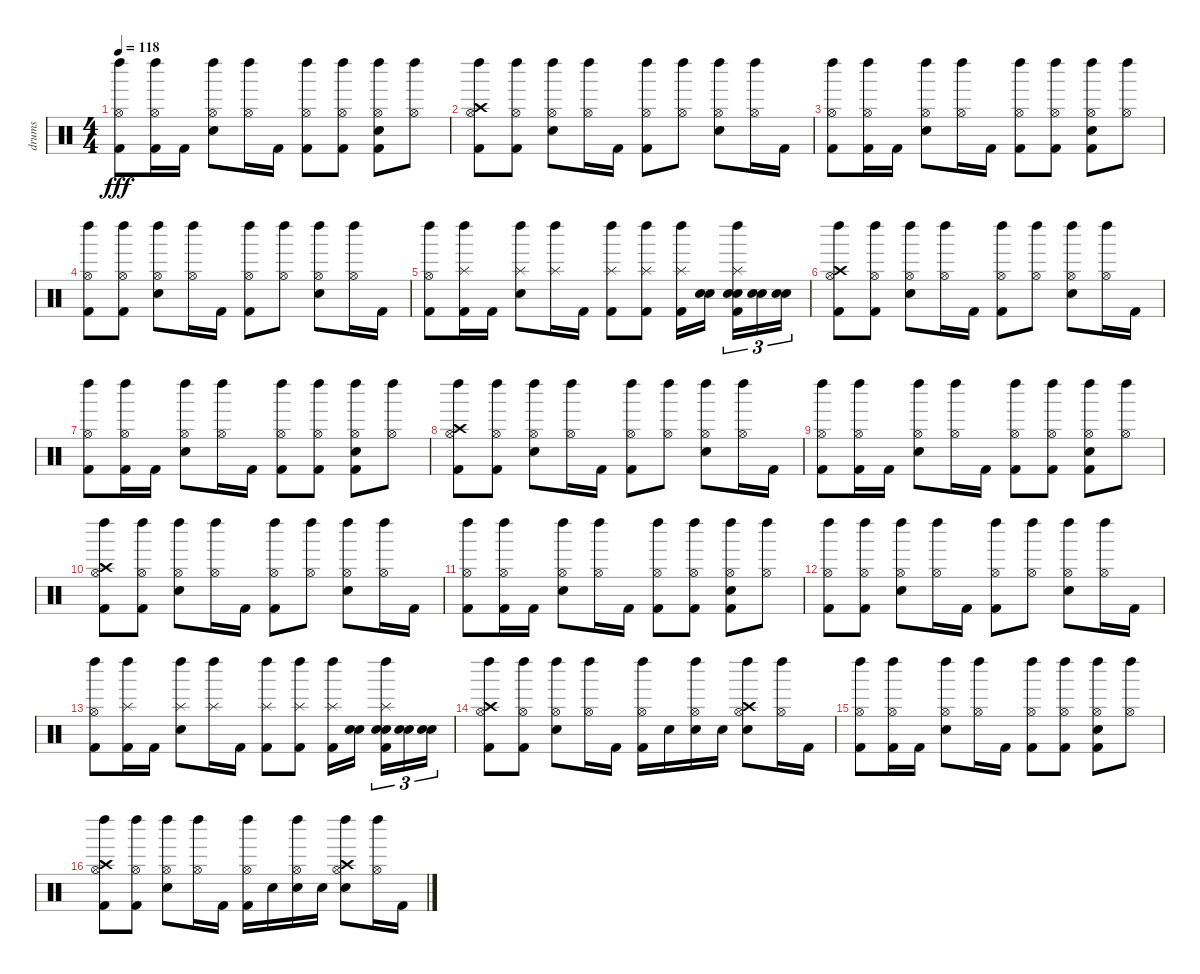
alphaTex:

\track ("drums" "drums") {instrument percussion}
\staff {score}
\articulation defaults
\ts (4 4)
\tempo 118
\clef neutral
\ks c
("Hi-Hat (open)" "Left Maraca (hit)" "Kick (hit) 2").8{dy fff} ("Hi-Hat (open)" "Left Maraca (hit)" "Kick (hit) 2").16 "Kick (hit) 2".16 ("Hi-Hat (open)" "Left Maraca (hit)" "Electric Snare (hit)").8 ("Left Maraca (hit)" "Hi-Hat (open)").16 "Kick (hit) 2".16 ("Kick (hit) 2" "Left Maraca (hit)" "Hi-Hat (open)").8 ("Hi-Hat (open)" "Kick (hit) 2" "Left Maraca (hit)").8 ("Electric Snare (hit)" "Left Maraca (hit)" "Kick (hit) 2" "Hi-Hat (open)").8 ("Left Maraca (hit)" "Hi-Hat (open)").8 |
("Hi-Hat (open)" "Crash high (hit)" "Left Maraca (hit)" "Kick (hit) 2").8 ("Kick (hit) 2" "Left Maraca (hit)" "Hi-Hat (open)").8 ("Hi-Hat (open)" "Electric Snare (hit)" "Left Maraca (hit)").8 ("Left Maraca (hit)" "Hi-Hat (open)").16 "Kick (hit) 2".16 ("Left Maraca (hit)" "Kick (hit) 2" "Hi-Hat (open)").8 ("Left Maraca (hit)" "Hi-Hat (open)").8 ("Hi-Hat (open)" "Electric Snare (hit)" "Left Maraca (hit)").8 ("Left Maraca (hit)" "Hi-Hat (open)").16 "Kick (hit) 2".16 |
("Hi-Hat (open)" "Left Maraca (hit)" "Kick (hit) 2").8 ("Hi-Hat (open)" "Left Maraca (hit)" "Kick (hit) 2").16 "Kick (hit) 2".16 ("Hi-Hat (open)" "Left Maraca (hit)" "Electric Snare (hit)").8 ("Left Maraca (hit)" "Hi-Hat (open)").16 "Kick (hit) 2".16 ("Kick (hit) 2" "Left Maraca (hit)" "Hi-Hat (open)").8 ("Hi-Hat (open)" "Kick (hit) 2" "Left Maraca (hit)").8 ("Electric Snare (hit)" "Left Maraca (hit)" "Kick (hit) 2" "Hi-Hat (open)").8 ("Left Maraca (hit)" "Hi-Hat (open)").8 |
("Hi-Hat (open)" "Kick (hit) 2" "Left Maraca (hit)").8 ("Kick (hit) 2" "Hi-Hat (open)" "Left Maraca (hit)").8 ("Hi-Hat (open)" "Electric Snare (hit)" "Left Maraca (hit)").8 ("Hi-Hat (open)" "Left Maraca (hit)").16 "Kick (hit) 2".16 ("Hi-Hat (open)" "Kick (hit) 2" "Left Maraca (hit)").8 ("Left Maraca (hit)" "Hi-Hat (open)").8 ("Hi-Hat (open)" "Electric Snare (hit)" "Left Maraca (hit)").8 ("Hi-Hat (open)" "Left Maraca (hit)").16 "Kick (hit) 2".16 |
("Hi-Hat (open)" "Kick (hit) 2" "Left Maraca (hit)").8 ("Left Maraca (hit)" "Splash (hit)" "Kick (hit) 2").16 "Kick (hit) 2".16 ("Splash (hit)" "Left Maraca (hit)" "Electric Snare (hit)").8 ("Splash (hit)" "Left Maraca (hit)").16 "Kick (hit) 2".16 ("Left Maraca (hit)" "Kick (hit) 2" "Splash (hit)").8 ("Splash (hit)" "Kick (hit) 2" "Left Maraca (hit)").8 ("Left Maraca (hit)" "Kick (hit) 2" "Splash (hit)").16 ("Electric Snare (hit)" "Electric Snare (hit)").16 ("Electric Snare (hit)" "Kick (hit) 2" "Splash (hit)" "Left Maraca (hit)" "Electric Snare (hit)").16{tu (3 2)} ("Electric Snare (hit)" "Electric Snare (hit)").16{tu (3 2)} ("Electric Snare (hit)" "Electric Snare (hit)").16{tu (3 2)} |
("Hi-Hat (open)" "Crash high (hit)" "Left Maraca (hit)" "Kick (hit) 2").8 ("Kick (hit) 2" "Left Maraca (hit)" "Hi-Hat (open)").8 ("Hi-Hat (open)" "Electric Snare (hit)" "Left Maraca (hit)").8 ("Left Maraca (hit)" "Hi-Hat (open)").16 "Kick (hit) 2".16 ("Left Maraca (hit)" "Kick (hit) 2" "Hi-Hat (open)").8 ("Left Maraca (hit)" "Hi-Hat (open)").8 ("Hi-Hat (open)" "Electric Snare (hit)" "Left Maraca (hit)").8 ("Left Maraca (hit)" "Hi-Hat (open)").16 "Kick (hit) 2".16 |
("Hi-Hat (open)" "Left Maraca (hit)" "Kick (hit) 2").8 ("Hi-Hat (open)" "Left Maraca (hit)" "Kick (hit) 2").16 "Kick (hit) 2".16 ("Hi-Hat (open)" "Left Maraca (hit)" "Electric Snare (hit)").8 ("Left Maraca (hit)" "Hi-Hat (open)").16 "Kick (hit) 2".16 ("Kick (hit) 2" "Left Maraca (hit)" "Hi-Hat (open)").8 ("Hi-Hat (open)" "Kick (hit) 2" "Left Maraca (hit)").8 ("Electric Snare (hit)" "Left Maraca (hit)" "Kick (hit) 2" "Hi-Hat (open)").8 ("Left Maraca (hit)" "Hi-Hat (open)").8 |
("Hi-Hat (open)" "Crash high (hit)" "Left Maraca (hit)" "Kick (hit) 2").8 ("Kick (hit) 2" "Left Maraca (hit)" "Hi-Hat (open)").8 ("Hi-Hat (open)" "Electric Snare (hit)" "Left Maraca (hit)").8 ("Left Maraca (hit)" "Hi-Hat (open)").16 "Kick (hit) 2".16 ("Left Maraca (hit)" "Kick (hit) 2" "Hi-Hat (open)").8 ("Left Maraca (hit)" "Hi-Hat (open)").8 ("Hi-Hat (open)" "Electric Snare (hit)" "Left Maraca (hit)").8 ("Left Maraca (hit)" "Hi-Hat (open)").16 "Kick (hit) 2".16 |
("Hi-Hat (open)" "Left Maraca (hit)" "Kick (hit) 2").8 ("Hi-Hat (open)" "Left Maraca (hit)" "Kick (hit) 2").16 "Kick (hit) 2".16 ("Hi-Hat (open)" "Left Maraca (hit)" "Electric Snare (hit)").8 ("Left Maraca (hit)" "Hi-Hat (open)").16 "Kick (hit) 2".16 ("Kick (hit) 2" "Left Maraca (hit)" "Hi-Hat (open)").8 ("Hi-Hat (open)" "Kick (hit) 2" "Left Maraca (hit)").8 ("Electric Snare (hit)" "Left Maraca (hit)" "Kick (hit) 2" "Hi-Hat (open)").8 ("Left Maraca (hit)" "Hi-Hat (open)").8 |
("Hi-Hat (open)" "Crash high (hit)" "Left Maraca (hit)" "Kick (hit) 2").8 ("Kick (hit) 2" "Left Maraca (hit)" "Hi-Hat (open)").8 ("Hi-Hat (open)" "Electric Snare (hit)" "Left Maraca (hit)").8 ("Left Maraca (hit)" "Hi-Hat (open)").16 "Kick (hit) 2".16 ("Left Maraca (hit)" "Kick (hit) 2" "Hi-Hat (open)").8 ("Left Maraca (hit)" "Hi-Hat (open)").8 ("Hi-Hat (open)" "Electric Snare (hit)" "Left Maraca (hit)").8 ("Left Maraca (hit)" "Hi-Hat (open)").16 "Kick (hit) 2".16 |
("Hi-Hat (open)" "Left Maraca (hit)" "Kick (hit) 2").8 ("Hi-Hat (open)" "Left Maraca (hit)" "Kick (hit) 2").16 "Kick (hit) 2".16 ("Hi-Hat (open)" "Left Maraca (hit)" "Electric Snare (hit)").8 ("Left Maraca (hit)" "Hi-Hat (open)").16 "Kick (hit) 2".16 ("Kick (hit) 2" "Left Maraca (hit)" "Hi-Hat (open)").8 ("Hi-Hat (open)" "Kick (hit) 2" "Left Maraca (hit)").8 ("Electric Snare (hit)" "Left Maraca (hit)" "Kick (hit) 2" "Hi-Hat (open)").8 ("Left Maraca (hit)" "Hi-Hat (open)").8 |
("Hi-Hat (open)" "Kick (hit) 2" "Left Maraca (hit)").8 ("Kick (hit) 2" "Hi-Hat (open)" "Left Maraca (hit)").8 ("Hi-Hat (open)" "Electric Snare (hit)" "Left Maraca (hit)").8 ("Hi-Hat (open)" "Left Maraca (hit)").16 "Kick (hit) 2".16 ("Hi-Hat (open)" "Kick (hit) 2" "Left Maraca (hit)").8 ("Left Maraca (hit)" "Hi-Hat (open)").8 ("Hi-Hat (open)" "Electric Snare (hit)" "Left Maraca (hit)").8 ("Hi-Hat (open)" "Left Maraca (hit)").16 "Kick (hit) 2".16 |
("Hi-Hat (open)" "Kick (hit) 2" "Left Maraca (hit)").8 ("Left Maraca (hit)" "Splash (hit)" "Kick (hit) 2").16 "Kick (hit) 2".16 ("Splash (hit)" "Left Maraca (hit)" "Electric Snare (hit)").8 ("Splash (hit)" "Left Maraca (hit)").16 "Kick (hit) 2".16 ("Left Maraca (hit)" "Kick (hit) 2" "Splash (hit)").8 ("Splash (hit)" "Kick (hit) 2" "Left Maraca (hit)").8 ("Left Maraca (hit)" "Kick (hit) 2" "Splash (hit)").16 ("Electric Snare (hit)" "Electric Snare (hit)").16 ("Electric Snare (hit)" "Kick (hit) 2" "Splash (hit)" "Left Maraca (hit)" "Electric Snare (hit)").16{tu (3 2)} ("Electric Snare (hit)" "Electric Snare (hit)").16{tu (3 2)} ("Electric Snare (hit)" "Electric Snare (hit)").16{tu (3 2)} |
("Left Maraca (hit)" "Hi-Hat (open)" "Kick (hit) 2" "Crash high (hit)").8 ("Left Maraca (hit)" "Kick (hit) 2" "Hi-Hat (open)").8 ("Electric Snare (hit)" "Hi-Hat (open)" "Left Maraca (hit)").8 ("Left Maraca (hit)" "Hi-Hat (open)").16 "Kick (hit) 2".16 ("Kick (hit) 2" "Hi-Hat (open)" "Left Maraca (hit)").16 "Electric Snare (hit)".16 ("Hi-Hat (open)" "Left Maraca (hit)" "Electric Snare (hit)").16 "Electric Snare (hit)".16 ("Crash high (hit)" "Hi-Hat (open)" "Left Maraca (hit)" "Electric Snare (hit)").8 ("Left Maraca (hit)" "Hi-Hat (open)").16 "Kick (hit) 2".16 |
("Hi-Hat (open)" "Kick (hit) 2" "Left Maraca (hit)").8 ("Kick (hit) 2" "Hi-Hat (open)" "Left Maraca (hit)").16 "Kick (hit) 2".16 ("Electric Snare (hit)" "Hi-Hat (open)" "Left Maraca (hit)").8 ("Left Maraca (hit)" "Hi-Hat (open)").16 "Kick (hit) 2".16 ("Hi-Hat (open)" "Kick (hit) 2" "Left Maraca (hit)").8 ("Left Maraca (hit)" "Kick (hit) 2" "Hi-Hat (open)").8 ("Kick (hit) 2" "Electric Snare (hit)" "Left Maraca (hit)" "Hi-Hat (open)").8 ("Hi-Hat (open)" "Left Maraca (hit)").8 |
("Left Maraca (hit)" "Hi-Hat (open)" "Kick (hit) 2" "Crash high (hit)").8 ("Left Maraca (hit)" "Kick (hit) 2" "Hi-Hat (open)").8 ("Electric Snare (hit)" "Hi-Hat (open)" "Left Maraca (hit)").8 ("Left Maraca (hit)" "Hi-Hat (open)").16 "Kick (hit) 2".16 ("Kick (hit) 2" "Hi-Hat (open)" "Left Maraca (hit)").16 "Electric Snare (hit)".16 ("Hi-Hat (open)" "Left Maraca (hit)" "Electric Snare (hit)").16 "Electric Snare (hit)".16 ("Crash high (hit)" "Hi-Hat (open)" "Left Maraca (hit)" "Electric Snare (hit)").8 ("Left Maraca (hit)" "Hi-Hat (open)").16 "Kick (hit) 2".16
